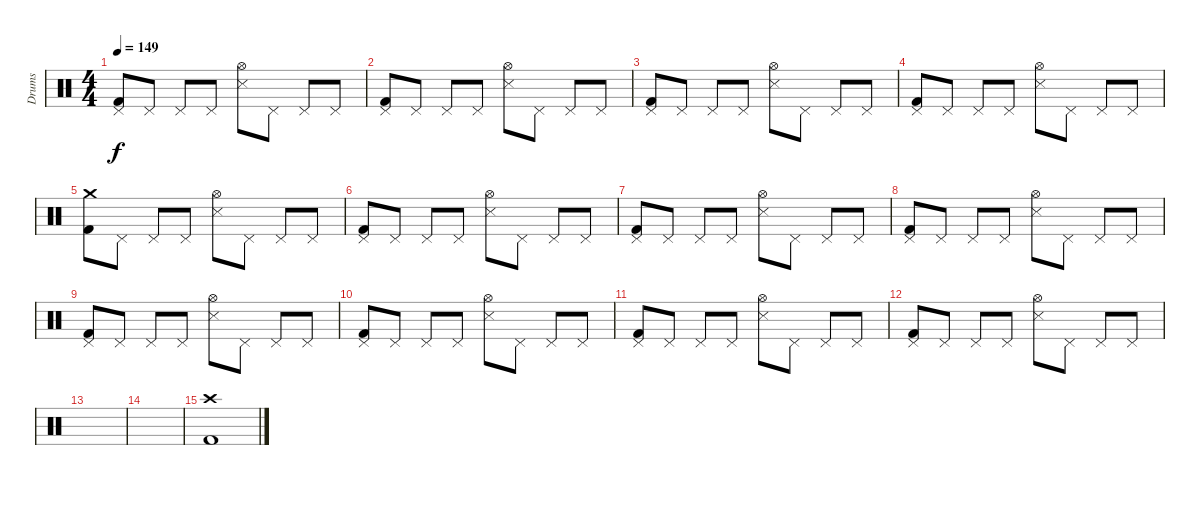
\track ("Drums" "Drums") {instrument percussion}
\staff {score}
\articulation defaults
\ts (4 4)
\tempo 149
\clef neutral
\ks c
("Pedal Hi-Hat (hit)" "Kick (hit) 2").8{dy f} "Pedal Hi-Hat (hit)".8 "Pedal Hi-Hat (hit)".8 "Pedal Hi-Hat (hit)".8 ("Hi-Hat (open)" "Snare (side stick) 3").8 "Pedal Hi-Hat (hit)".8 "Pedal Hi-Hat (hit)".8 "Pedal Hi-Hat (hit)".8 |
("Pedal Hi-Hat (hit)" "Kick (hit) 2").8 "Pedal Hi-Hat (hit)".8 "Pedal Hi-Hat (hit)".8 "Pedal Hi-Hat (hit)".8 ("Hi-Hat (open)" "Snare (side stick) 3").8 "Pedal Hi-Hat (hit)".8 "Pedal Hi-Hat (hit)".8 "Pedal Hi-Hat (hit)".8 |
("Pedal Hi-Hat (hit)" "Kick (hit) 2").8 "Pedal Hi-Hat (hit)".8 "Pedal Hi-Hat (hit)".8 "Pedal Hi-Hat (hit)".8 ("Hi-Hat (open)" "Snare (side stick) 3").8 "Pedal Hi-Hat (hit)".8 "Pedal Hi-Hat (hit)".8 "Pedal Hi-Hat (hit)".8 |
("Pedal Hi-Hat (hit)" "Kick (hit) 2").8 "Pedal Hi-Hat (hit)".8 "Pedal Hi-Hat (hit)".8 "Pedal Hi-Hat (hit)".8 ("Hi-Hat (open)" "Snare (side stick) 3").8 "Pedal Hi-Hat (hit)".8 "Pedal Hi-Hat (hit)".8 "Pedal Hi-Hat (hit)".8 |
("Crash medium (hit)" "Kick (hit) 2").8 "Pedal Hi-Hat (hit)".8 "Pedal Hi-Hat (hit)".8 "Pedal Hi-Hat (hit)".8 ("Hi-Hat (open)" "Snare (side stick) 3").8 "Pedal Hi-Hat (hit)".8 "Pedal Hi-Hat (hit)".8 "Pedal Hi-Hat (hit)".8 |
("Pedal Hi-Hat (hit)" "Kick (hit) 2").8 "Pedal Hi-Hat (hit)".8 "Pedal Hi-Hat (hit)".8 "Pedal Hi-Hat (hit)".8 ("Hi-Hat (open)" "Snare (side stick) 3").8 "Pedal Hi-Hat (hit)".8 "Pedal Hi-Hat (hit)".8 "Pedal Hi-Hat (hit)".8 |
("Pedal Hi-Hat (hit)" "Kick (hit) 2").8 "Pedal Hi-Hat (hit)".8 "Pedal Hi-Hat (hit)".8 "Pedal Hi-Hat (hit)".8 ("Hi-Hat (open)" "Snare (side stick) 3").8 "Pedal Hi-Hat (hit)".8 "Pedal Hi-Hat (hit)".8 "Pedal Hi-Hat (hit)".8 |
("Pedal Hi-Hat (hit)" "Kick (hit) 2").8 "Pedal Hi-Hat (hit)".8 "Pedal Hi-Hat (hit)".8 "Pedal Hi-Hat (hit)".8 ("Hi-Hat (open)" "Snare (side stick) 3").8 "Pedal Hi-Hat (hit)".8 "Pedal Hi-Hat (hit)".8 "Pedal Hi-Hat (hit)".8 |
("Pedal Hi-Hat (hit)" "Kick (hit) 2").8 "Pedal Hi-Hat (hit)".8 "Pedal Hi-Hat (hit)".8 "Pedal Hi-Hat (hit)".8 ("Hi-Hat (open)" "Snare (side stick) 3").8 "Pedal Hi-Hat (hit)".8 "Pedal Hi-Hat (hit)".8 "Pedal Hi-Hat (hit)".8 |
("Pedal Hi-Hat (hit)" "Kick (hit) 2").8 "Pedal Hi-Hat (hit)".8 "Pedal Hi-Hat (hit)".8 "Pedal Hi-Hat (hit)".8 ("Hi-Hat (open)" "Snare (side stick) 3").8 "Pedal Hi-Hat (hit)".8 "Pedal Hi-Hat (hit)".8 "Pedal Hi-Hat (hit)".8 |
("Pedal Hi-Hat (hit)" "Kick (hit) 2").8 "Pedal Hi-Hat (hit)".8 "Pedal Hi-Hat (hit)".8 "Pedal Hi-Hat (hit)".8 ("Hi-Hat (open)" "Snare (side stick) 3").8 "Pedal Hi-Hat (hit)".8 "Pedal Hi-Hat (hit)".8 "Pedal Hi-Hat (hit)".8 |
("Pedal Hi-Hat (hit)" "Kick (hit) 2").8 "Pedal Hi-Hat (hit)".8 "Pedal Hi-Hat (hit)".8 "Pedal Hi-Hat (hit)".8 ("Hi-Hat (open)" "Snare (side stick) 3").8 "Pedal Hi-Hat (hit)".8 "Pedal Hi-Hat (hit)".8 "Pedal Hi-Hat (hit)".8 |
|
|
("Crash high (hit)" "Kick (hit) 2").1
